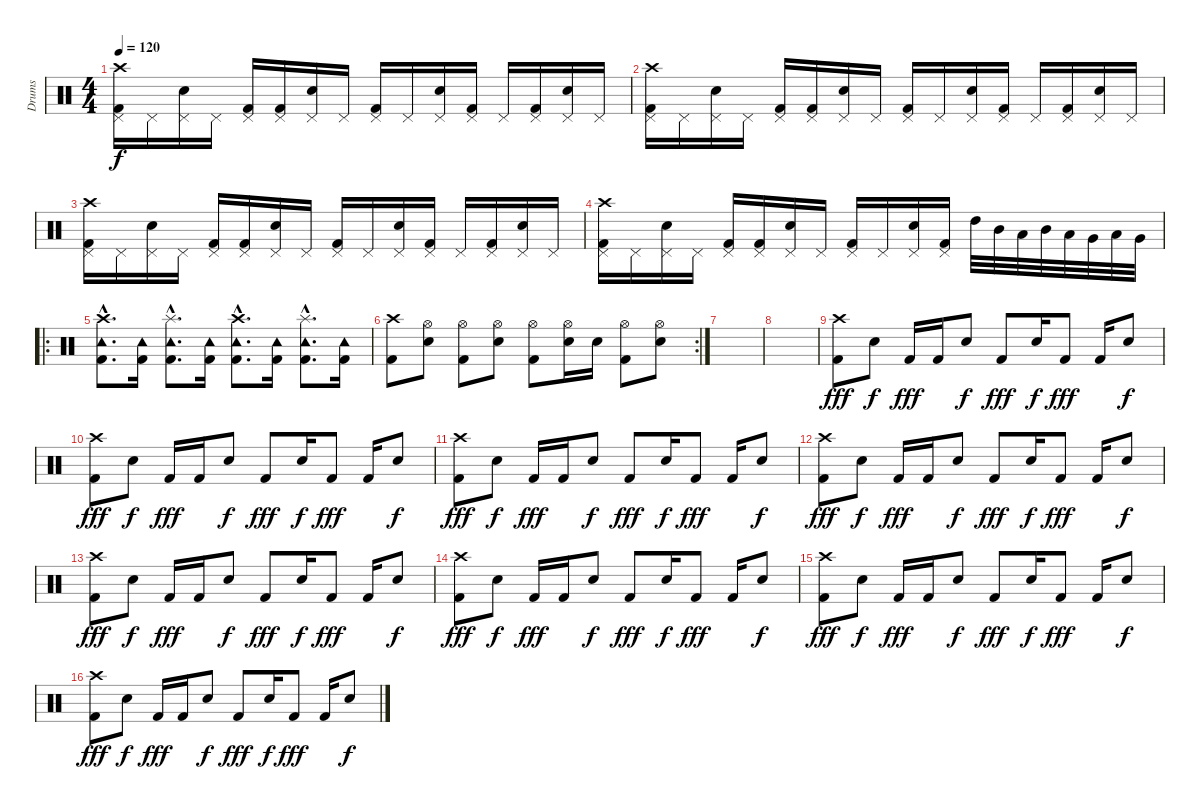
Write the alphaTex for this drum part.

\track ("Drums" "Drums") {instrument percussion}
\staff {score}
\articulation defaults
\ts (4 4)
\tempo 120
\clef neutral
\ks c
("Crash high (hit)" "Pedal Hi-Hat (hit)" "Kick (hit) 2").16{dy f} "Pedal Hi-Hat (hit)".16 ("Pedal Hi-Hat (hit)" "Electric Snare (hit)").16 "Pedal Hi-Hat (hit)".16 ("Pedal Hi-Hat (hit)" "Kick (hit) 2").16 ("Pedal Hi-Hat (hit)" "Kick (hit) 2").16 ("Pedal Hi-Hat (hit)" "Electric Snare (hit)").16 "Pedal Hi-Hat (hit)".16 ("Pedal Hi-Hat (hit)" "Kick (hit) 2").16 "Pedal Hi-Hat (hit)".16 ("Pedal Hi-Hat (hit)" "Electric Snare (hit)").16 ("Pedal Hi-Hat (hit)" "Kick (hit) 2").16 "Pedal Hi-Hat (hit)".16 ("Pedal Hi-Hat (hit)" "Kick (hit) 2").16 ("Pedal Hi-Hat (hit)" "Electric Snare (hit)").16 "Pedal Hi-Hat (hit)".16 |
("Crash high (hit)" "Pedal Hi-Hat (hit)" "Kick (hit) 2").16 "Pedal Hi-Hat (hit)".16 ("Pedal Hi-Hat (hit)" "Electric Snare (hit)").16 "Pedal Hi-Hat (hit)".16 ("Pedal Hi-Hat (hit)" "Kick (hit) 2").16 ("Pedal Hi-Hat (hit)" "Kick (hit) 2").16 ("Pedal Hi-Hat (hit)" "Electric Snare (hit)").16 "Pedal Hi-Hat (hit)".16 ("Pedal Hi-Hat (hit)" "Kick (hit) 2").16 "Pedal Hi-Hat (hit)".16 ("Pedal Hi-Hat (hit)" "Electric Snare (hit)").16 ("Pedal Hi-Hat (hit)" "Kick (hit) 2").16 "Pedal Hi-Hat (hit)".16 ("Pedal Hi-Hat (hit)" "Kick (hit) 2").16 ("Pedal Hi-Hat (hit)" "Electric Snare (hit)").16 "Pedal Hi-Hat (hit)".16 |
("Crash high (hit)" "Pedal Hi-Hat (hit)" "Kick (hit) 2").16 "Pedal Hi-Hat (hit)".16 ("Pedal Hi-Hat (hit)" "Electric Snare (hit)").16 "Pedal Hi-Hat (hit)".16 ("Pedal Hi-Hat (hit)" "Kick (hit) 2").16 ("Pedal Hi-Hat (hit)" "Kick (hit) 2").16 ("Pedal Hi-Hat (hit)" "Electric Snare (hit)").16 "Pedal Hi-Hat (hit)".16 ("Pedal Hi-Hat (hit)" "Kick (hit) 2").16 "Pedal Hi-Hat (hit)".16 ("Pedal Hi-Hat (hit)" "Electric Snare (hit)").16 ("Pedal Hi-Hat (hit)" "Kick (hit) 2").16 "Pedal Hi-Hat (hit)".16 ("Pedal Hi-Hat (hit)" "Kick (hit) 2").16 ("Pedal Hi-Hat (hit)" "Electric Snare (hit)").16 "Pedal Hi-Hat (hit)".16 |
("Crash high (hit)" "Pedal Hi-Hat (hit)" "Kick (hit) 2").16 "Pedal Hi-Hat (hit)".16 ("Pedal Hi-Hat (hit)" "Electric Snare (hit)").16 "Pedal Hi-Hat (hit)".16 ("Pedal Hi-Hat (hit)" "Kick (hit) 2").16 ("Pedal Hi-Hat (hit)" "Kick (hit) 2").16 ("Pedal Hi-Hat (hit)" "Electric Snare (hit)").16 "Pedal Hi-Hat (hit)".16 ("Pedal Hi-Hat (hit)" "Kick (hit) 2").16 "Pedal Hi-Hat (hit)".16 ("Pedal Hi-Hat (hit)" "Electric Snare (hit)").16 ("Pedal Hi-Hat (hit)" "Kick (hit) 2").16 "High Tom (hit)".32 "Mid Tom (hit)".32 "Low Tom (hit)".32 "Mid Tom (hit)".32 "Low Tom (hit)".32 "Very Low Tom (hit)".32 "Low Tom (hit)".32 "Very Low Tom (hit)".32 |
\ro
("Crash high (hit)"{hac} "Kick (hit) 2"{hac} "Tambourine (hit)"{hac}).8{d} ("Kick (hit) 2" "Tambourine (hit)").16 ("Splash (hit)"{hac} "Kick (hit) 2"{hac} "Tambourine (hit)"{hac}).8{d} ("Kick (hit) 2" "Tambourine (hit)").16 ("Crash high (hit)"{hac} "Kick (hit) 2"{hac} "Tambourine (hit)"{hac}).8{d} ("Kick (hit) 2" "Tambourine (hit)").16 ("Splash (hit)"{hac} "Kick (hit) 2"{hac} "Tambourine (hit)"{hac}).8{d} ("Kick (hit) 2" "Tambourine (hit)").16 |
\rc 2
("Crash high (hit)" "Kick (hit) 2").8 ("Hi-Hat (open)" "Electric Snare (hit)").8 ("Hi-Hat (open)" "Kick (hit) 2").8 ("Hi-Hat (open)" "Electric Snare (hit)").8 ("Hi-Hat (open)" "Kick (hit) 2").8 ("Hi-Hat (open)" "Electric Snare (hit)").16 "Electric Snare (hit)".16 ("Hi-Hat (open)" "Kick (hit) 2").8 ("Hi-Hat (open)" "Electric Snare (hit)").8 |
|
|
("Crash high (hit)" "Kick (hit) 2").8{dy fff} "Electric Snare (hit)".8{dy f} "Kick (hit) 2".16{dy fff} "Kick (hit) 2".16 "Electric Snare (hit)".8{dy f} "Kick (hit) 2".8{dy fff} "Electric Snare (hit)".16{dy f} "Kick (hit) 2".8{dy fff} "Kick (hit) 2".16 "Electric Snare (hit)".8{dy f} |
("Crash high (hit)" "Kick (hit) 2").8{dy fff} "Electric Snare (hit)".8{dy f} "Kick (hit) 2".16{dy fff} "Kick (hit) 2".16 "Electric Snare (hit)".8{dy f} "Kick (hit) 2".8{dy fff} "Electric Snare (hit)".16{dy f} "Kick (hit) 2".8{dy fff} "Kick (hit) 2".16 "Electric Snare (hit)".8{dy f} |
("Crash high (hit)" "Kick (hit) 2").8{dy fff} "Electric Snare (hit)".8{dy f} "Kick (hit) 2".16{dy fff} "Kick (hit) 2".16 "Electric Snare (hit)".8{dy f} "Kick (hit) 2".8{dy fff} "Electric Snare (hit)".16{dy f} "Kick (hit) 2".8{dy fff} "Kick (hit) 2".16 "Electric Snare (hit)".8{dy f} |
("Crash high (hit)" "Kick (hit) 2").8{dy fff} "Electric Snare (hit)".8{dy f} "Kick (hit) 2".16{dy fff} "Kick (hit) 2".16 "Electric Snare (hit)".8{dy f} "Kick (hit) 2".8{dy fff} "Electric Snare (hit)".16{dy f} "Kick (hit) 2".8{dy fff} "Kick (hit) 2".16 "Electric Snare (hit)".8{dy f} |
("Crash high (hit)" "Kick (hit) 2").8{dy fff} "Electric Snare (hit)".8{dy f} "Kick (hit) 2".16{dy fff} "Kick (hit) 2".16 "Electric Snare (hit)".8{dy f} "Kick (hit) 2".8{dy fff} "Electric Snare (hit)".16{dy f} "Kick (hit) 2".8{dy fff} "Kick (hit) 2".16 "Electric Snare (hit)".8{dy f} |
("Crash high (hit)" "Kick (hit) 2").8{dy fff} "Electric Snare (hit)".8{dy f} "Kick (hit) 2".16{dy fff} "Kick (hit) 2".16 "Electric Snare (hit)".8{dy f} "Kick (hit) 2".8{dy fff} "Electric Snare (hit)".16{dy f} "Kick (hit) 2".8{dy fff} "Kick (hit) 2".16 "Electric Snare (hit)".8{dy f} |
("Crash high (hit)" "Kick (hit) 2").8{dy fff} "Electric Snare (hit)".8{dy f} "Kick (hit) 2".16{dy fff} "Kick (hit) 2".16 "Electric Snare (hit)".8{dy f} "Kick (hit) 2".8{dy fff} "Electric Snare (hit)".16{dy f} "Kick (hit) 2".8{dy fff} "Kick (hit) 2".16 "Electric Snare (hit)".8{dy f} |
("Crash high (hit)" "Kick (hit) 2").8{dy fff} "Electric Snare (hit)".8{dy f} "Kick (hit) 2".16{dy fff} "Kick (hit) 2".16 "Electric Snare (hit)".8{dy f} "Kick (hit) 2".8{dy fff} "Electric Snare (hit)".16{dy f} "Kick (hit) 2".8{dy fff} "Kick (hit) 2".16 "Electric Snare (hit)".8{dy f}
